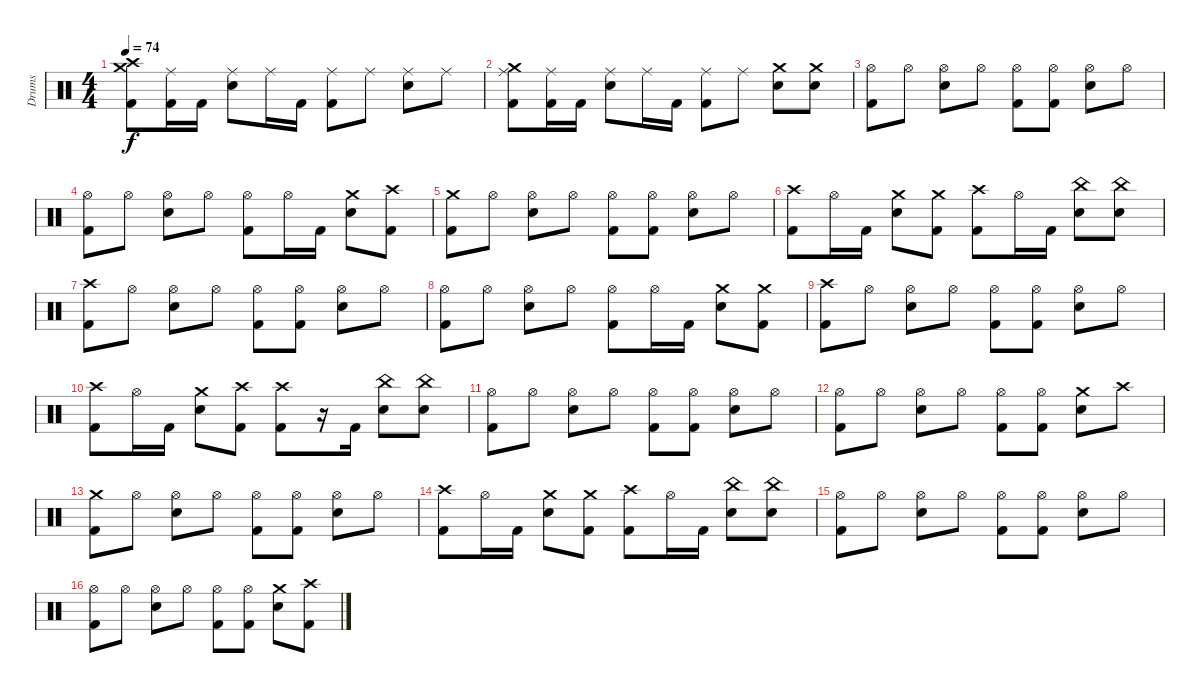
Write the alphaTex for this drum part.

\track ("Drums" "Drums") {instrument percussion}
\staff {score}
\articulation defaults
\ts (4 4)
\tempo 74
\clef neutral
\ks c
("Crash high (hit)" "Crash medium (hit)" "Kick (hit) 2").8{dy f} ("Ride (middle)" "Kick (hit) 2").16 "Kick (hit) 2".16 ("Ride (middle)" "Snare (hit) 2").8 "Ride (middle)".16 "Kick (hit) 2".16 ("Ride (middle)" "Kick (hit) 2").8 "Ride (middle)".8 ("Ride (middle)" "Snare (hit) 2").8 "Ride (middle)".8 |
("Ride (middle)" "Crash medium (hit)" "Kick (hit) 2").8 ("Ride (middle)" "Kick (hit) 2").16 "Kick (hit) 2".16 ("Ride (middle)" "Snare (hit) 2").8 "Ride (middle)".16 "Kick (hit) 2".16 ("Ride (middle)" "Kick (hit) 2").8 "Ride (middle)".8 ("Crash medium (hit)" "Snare (hit) 2").8 ("Crash medium (hit)" "Snare (hit) 2").8 |
("Hi-Hat (open)" "Kick (hit) 2").8 "Hi-Hat (open)".8 ("Hi-Hat (open)" "Snare (hit) 2").8 "Hi-Hat (open)".8 ("Hi-Hat (open)" "Kick (hit) 2").8 ("Hi-Hat (open)" "Kick (hit) 2").8 ("Hi-Hat (open)" "Snare (hit) 2").8 "Hi-Hat (open)".8 |
("Hi-Hat (open)" "Kick (hit) 2").8 "Hi-Hat (open)".8 ("Hi-Hat (open)" "Snare (hit) 2").8 "Hi-Hat (open)".8 ("Hi-Hat (open)" "Kick (hit) 2").8 "Hi-Hat (open)".16 "Kick (hit) 2".16 ("Crash medium (hit)" "Snare (hit) 2").8 ("Crash high (hit)" "Kick (hit) 2").8 |
("Crash medium (hit)" "Kick (hit) 2").8 "Hi-Hat (open)".8 ("Hi-Hat (open)" "Snare (hit) 2").8 "Hi-Hat (open)".8 ("Hi-Hat (open)" "Kick (hit) 2").8 ("Hi-Hat (open)" "Kick (hit) 2").8 ("Hi-Hat (open)" "Snare (hit) 2").8 "Hi-Hat (open)".8 |
("Crash high (hit)" "Kick (hit) 2").8 "Hi-Hat (open)".16 "Kick (hit) 2".16 ("Crash medium (hit)" "Snare (hit) 2").8 ("Crash medium (hit)" "Kick (hit) 2").8 ("Crash high (hit)" "Kick (hit) 2").8 "Hi-Hat (open)".16 "Kick (hit) 2".16 ("China (hit)" "Snare (hit) 2").8 ("China (hit)" "Snare (hit) 2").8 |
("Crash high (hit)" "Kick (hit) 2").8 "Hi-Hat (open)".8 ("Hi-Hat (open)" "Snare (hit) 2").8 "Hi-Hat (open)".8 ("Hi-Hat (open)" "Kick (hit) 2").8 ("Hi-Hat (open)" "Kick (hit) 2").8 ("Hi-Hat (open)" "Snare (hit) 2").8 "Hi-Hat (open)".8 |
("Hi-Hat (open)" "Kick (hit) 2").8 "Hi-Hat (open)".8 ("Hi-Hat (open)" "Snare (hit) 2").8 "Hi-Hat (open)".8 ("Hi-Hat (open)" "Kick (hit) 2").8 "Hi-Hat (open)".16 "Kick (hit) 2".16 ("Crash medium (hit)" "Snare (hit) 2").8 ("Crash medium (hit)" "Kick (hit) 2").8 |
("Crash high (hit)" "Kick (hit) 2").8 "Hi-Hat (open)".8 ("Hi-Hat (open)" "Snare (hit) 2").8 "Hi-Hat (open)".8 ("Hi-Hat (open)" "Kick (hit) 2").8 ("Hi-Hat (open)" "Kick (hit) 2").8 ("Hi-Hat (open)" "Snare (hit) 2").8 "Hi-Hat (open)".8 |
("Crash high (hit)" "Kick (hit) 2").8 "Hi-Hat (open)".16 "Kick (hit) 2".16 ("Crash medium (hit)" "Snare (hit) 2").8 ("Crash high (hit)" "Kick (hit) 2").8 ("Crash high (hit)" "Kick (hit) 2").8 r.16 "Kick (hit) 2".16 ("China (hit)" "Snare (hit) 2").8 ("China (hit)" "Snare (hit) 2").8 |
("Hi-Hat (open)" "Kick (hit) 2").8 "Hi-Hat (open)".8 ("Hi-Hat (open)" "Snare (hit) 2").8 "Hi-Hat (open)".8 ("Hi-Hat (open)" "Kick (hit) 2").8 ("Hi-Hat (open)" "Kick (hit) 2").8 ("Hi-Hat (open)" "Snare (hit) 2").8 "Hi-Hat (open)".8 |
("Hi-Hat (open)" "Kick (hit) 2").8 "Hi-Hat (open)".8 ("Hi-Hat (open)" "Snare (hit) 2").8 "Hi-Hat (open)".8 ("Hi-Hat (open)" "Kick (hit) 2").8 ("Hi-Hat (open)" "Kick (hit) 2").8 ("Crash medium (hit)" "Snare (hit) 2").8 "Crash high (hit)".8 |
("Crash medium (hit)" "Kick (hit) 2").8 "Hi-Hat (open)".8 ("Hi-Hat (open)" "Snare (hit) 2").8 "Hi-Hat (open)".8 ("Hi-Hat (open)" "Kick (hit) 2").8 ("Hi-Hat (open)" "Kick (hit) 2").8 ("Hi-Hat (open)" "Snare (hit) 2").8 "Hi-Hat (open)".8 |
("Crash high (hit)" "Kick (hit) 2").8 "Hi-Hat (open)".16 "Kick (hit) 2".16 ("Crash medium (hit)" "Snare (hit) 2").8 ("Crash medium (hit)" "Kick (hit) 2").8 ("Crash high (hit)" "Kick (hit) 2").8 "Hi-Hat (open)".16 "Kick (hit) 2".16 ("China (hit)" "Snare (hit) 2").8 ("China (hit)" "Snare (hit) 2").8 |
("Hi-Hat (open)" "Kick (hit) 2").8 "Hi-Hat (open)".8 ("Hi-Hat (open)" "Snare (hit) 2").8 "Hi-Hat (open)".8 ("Hi-Hat (open)" "Kick (hit) 2").8 ("Hi-Hat (open)" "Kick (hit) 2").8 ("Hi-Hat (open)" "Snare (hit) 2").8 "Hi-Hat (open)".8 |
("Hi-Hat (open)" "Kick (hit) 2").8 "Hi-Hat (open)".8 ("Hi-Hat (open)" "Snare (hit) 2").8 "Hi-Hat (open)".8 ("Hi-Hat (open)" "Kick (hit) 2").8 ("Hi-Hat (open)" "Kick (hit) 2").8 ("Crash medium (hit)" "Snare (hit) 2").8 ("Crash high (hit)" "Kick (hit) 2").8
